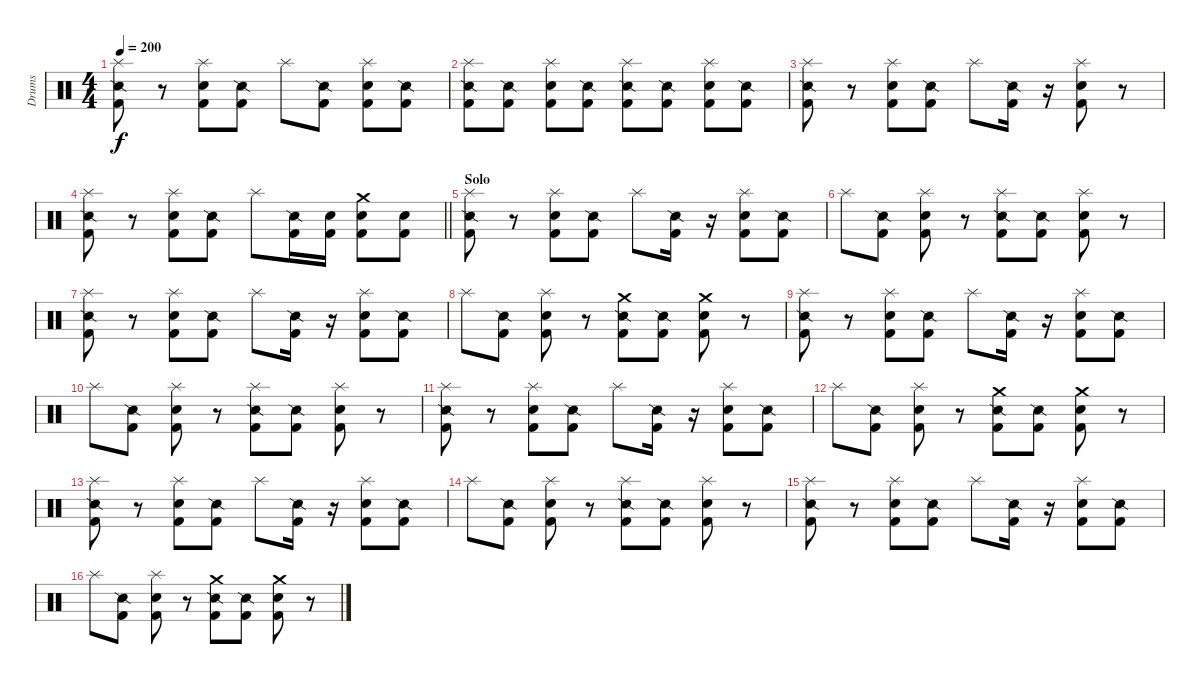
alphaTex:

\track ("Drums" "Drums") {instrument percussion}
\staff {score}
\articulation defaults
\ts (4 4)
\tempo 200
\clef neutral
\ks c
("Splash (hit)" "Snare (side stick) 2" "Kick (hit) 2").8{dy f} r.8 ("Splash (hit)" "Snare (hit) 2" "Kick (hit) 2").8 ("Snare (side stick) 2" "Kick (hit) 2").8 "Splash (hit)".8 ("Snare (side stick) 2" "Kick (hit) 2").8 ("Splash (hit)" "Snare (hit) 2" "Kick (hit) 2").8 ("Snare (side stick) 2" "Kick (hit) 2").8 |
("Splash (hit)" "Snare (side stick) 2" "Kick (hit) 2").8 ("Snare (side stick) 2" "Kick (hit) 2").8 ("Splash (hit)" "Snare (hit) 2" "Kick (hit) 2").8 ("Snare (side stick) 2" "Kick (hit) 2").8 ("Splash (hit)" "Snare (side stick) 2" "Kick (hit) 2").8 ("Snare (side stick) 2" "Kick (hit) 2").8 ("Splash (hit)" "Snare (hit) 2" "Kick (hit) 2").8 ("Snare (side stick) 2" "Kick (hit) 2").8 |
("Splash (hit)" "Snare (side stick) 2" "Kick (hit) 2").8 r.8 ("Splash (hit)" "Snare (hit) 2" "Kick (hit) 2").8 ("Snare (side stick) 2" "Kick (hit) 2").8 "Splash (hit)".8 ("Snare (side stick) 2" "Kick (hit) 2").16 r.16 ("Splash (hit)" "Snare (hit) 2" "Kick (hit) 2").8 r.8 |
\barLineRight lightlight
("Splash (hit)" "Snare (side stick) 2" "Kick (hit) 2").8 r.8 ("Splash (hit)" "Snare (hit) 2" "Kick (hit) 2").8 ("Snare (side stick) 2" "Kick (hit) 2").8 "Splash (hit)".8 ("Snare (side stick) 2" "Kick (hit) 2").16 ("Snare (hit) 2" "Kick (hit) 2").16 ("Crash medium (hit)" "Snare (hit) 2" "Kick (hit) 2").8 ("Snare (hit) 2" "Kick (hit) 2").8 |
\section ("" "Solo")
("Splash (hit)" "Snare (side stick) 2" "Kick (hit) 2").8 r.8 ("Splash (hit)" "Snare (hit) 2" "Kick (hit) 2").8 ("Snare (side stick) 2" "Kick (hit) 2").8 "Splash (hit)".8 ("Snare (side stick) 2" "Kick (hit) 2").16 r.16 ("Splash (hit)" "Snare (hit) 2" "Kick (hit) 2").8 ("Snare (side stick) 2" "Kick (hit) 2").8 |
"Splash (hit)".8 ("Snare (side stick) 2" "Kick (hit) 2").8 ("Splash (hit)" "Snare (hit) 2" "Kick (hit) 2").8 r.8 ("Splash (hit)" "Snare (side stick) 2" "Kick (hit) 2").8 ("Snare (side stick) 2" "Kick (hit) 2").8 ("Splash (hit)" "Snare (hit) 2" "Kick (hit) 2").8 r.8 |
("Splash (hit)" "Snare (side stick) 2" "Kick (hit) 2").8 r.8 ("Splash (hit)" "Snare (hit) 2" "Kick (hit) 2").8 ("Snare (side stick) 2" "Kick (hit) 2").8 "Splash (hit)".8 ("Snare (side stick) 2" "Kick (hit) 2").16 r.16 ("Splash (hit)" "Snare (hit) 2" "Kick (hit) 2").8 ("Snare (side stick) 2" "Kick (hit) 2").8 |
"Splash (hit)".8 ("Snare (side stick) 2" "Kick (hit) 2").8 ("Splash (hit)" "Snare (hit) 2" "Kick (hit) 2").8 r.8 ("Crash medium (hit)" "Snare (side stick) 2" "Kick (hit) 2").8 ("Snare (side stick) 2" "Kick (hit) 2").8 ("Crash medium (hit)" "Snare (hit) 2" "Kick (hit) 2").8 r.8 |
("Splash (hit)" "Snare (side stick) 2" "Kick (hit) 2").8 r.8 ("Splash (hit)" "Snare (hit) 2" "Kick (hit) 2").8 ("Snare (side stick) 2" "Kick (hit) 2").8 "Splash (hit)".8 ("Snare (side stick) 2" "Kick (hit) 2").16 r.16 ("Splash (hit)" "Snare (hit) 2" "Kick (hit) 2").8 ("Snare (side stick) 2" "Kick (hit) 2").8 |
"Splash (hit)".8 ("Snare (side stick) 2" "Kick (hit) 2").8 ("Splash (hit)" "Snare (hit) 2" "Kick (hit) 2").8 r.8 ("Splash (hit)" "Snare (side stick) 2" "Kick (hit) 2").8 ("Snare (side stick) 2" "Kick (hit) 2").8 ("Splash (hit)" "Snare (hit) 2" "Kick (hit) 2").8 r.8 |
("Splash (hit)" "Snare (side stick) 2" "Kick (hit) 2").8 r.8 ("Splash (hit)" "Snare (hit) 2" "Kick (hit) 2").8 ("Snare (side stick) 2" "Kick (hit) 2").8 "Splash (hit)".8 ("Snare (side stick) 2" "Kick (hit) 2").16 r.16 ("Splash (hit)" "Snare (hit) 2" "Kick (hit) 2").8 ("Snare (side stick) 2" "Kick (hit) 2").8 |
"Splash (hit)".8 ("Snare (side stick) 2" "Kick (hit) 2").8 ("Splash (hit)" "Snare (hit) 2" "Kick (hit) 2").8 r.8 ("Crash medium (hit)" "Snare (side stick) 2" "Kick (hit) 2").8 ("Snare (side stick) 2" "Kick (hit) 2").8 ("Crash medium (hit)" "Snare (hit) 2" "Kick (hit) 2").8 r.8 |
("Splash (hit)" "Snare (side stick) 2" "Kick (hit) 2").8 r.8 ("Splash (hit)" "Snare (hit) 2" "Kick (hit) 2").8 ("Snare (side stick) 2" "Kick (hit) 2").8 "Splash (hit)".8 ("Snare (side stick) 2" "Kick (hit) 2").16 r.16 ("Splash (hit)" "Snare (hit) 2" "Kick (hit) 2").8 ("Snare (side stick) 2" "Kick (hit) 2").8 |
"Splash (hit)".8 ("Snare (side stick) 2" "Kick (hit) 2").8 ("Splash (hit)" "Snare (hit) 2" "Kick (hit) 2").8 r.8 ("Splash (hit)" "Snare (side stick) 2" "Kick (hit) 2").8 ("Snare (side stick) 2" "Kick (hit) 2").8 ("Splash (hit)" "Snare (hit) 2" "Kick (hit) 2").8 r.8 |
("Splash (hit)" "Snare (side stick) 2" "Kick (hit) 2").8 r.8 ("Splash (hit)" "Snare (hit) 2" "Kick (hit) 2").8 ("Snare (side stick) 2" "Kick (hit) 2").8 "Splash (hit)".8 ("Snare (side stick) 2" "Kick (hit) 2").16 r.16 ("Splash (hit)" "Snare (hit) 2" "Kick (hit) 2").8 ("Snare (side stick) 2" "Kick (hit) 2").8 |
"Splash (hit)".8 ("Snare (side stick) 2" "Kick (hit) 2").8 ("Splash (hit)" "Snare (hit) 2" "Kick (hit) 2").8 r.8 ("Crash medium (hit)" "Snare (side stick) 2" "Kick (hit) 2").8 ("Snare (side stick) 2" "Kick (hit) 2").8 ("Crash medium (hit)" "Snare (hit) 2" "Kick (hit) 2").8 r.8
